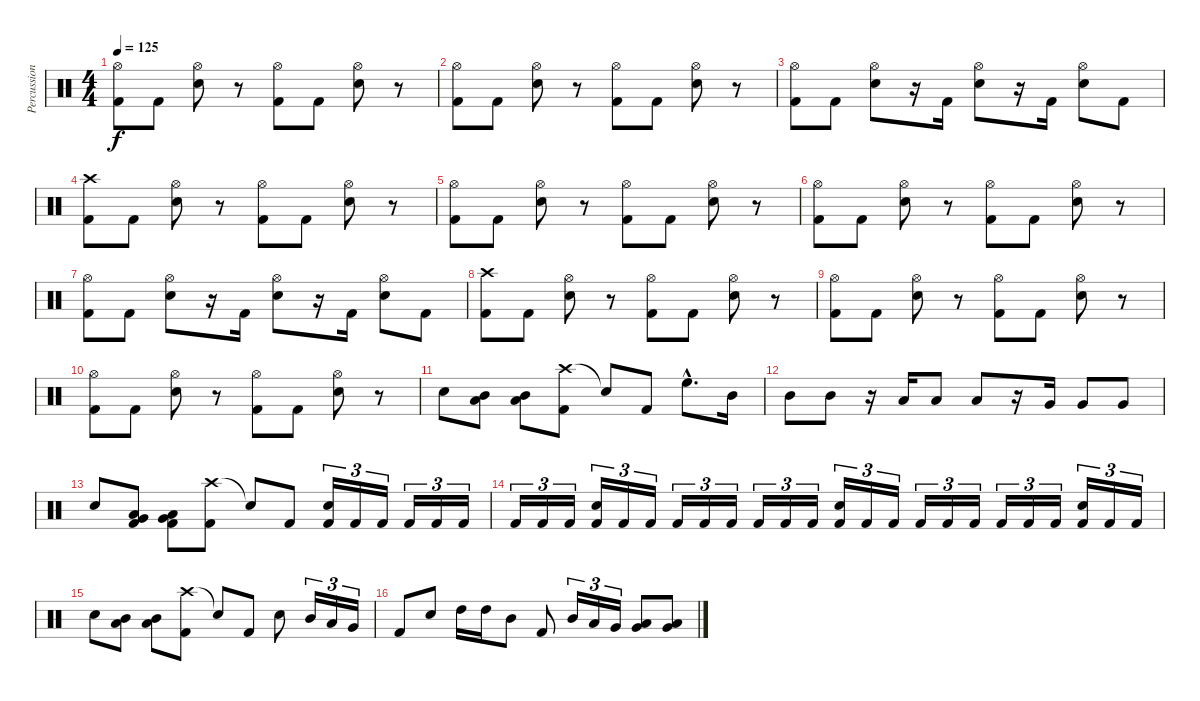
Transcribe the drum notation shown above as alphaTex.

\track ("Percussion" "Percussion") {instrument percussion}
\staff {score}
\articulation defaults
\ts (4 4)
\tempo 125
\clef neutral
\ks c
("Hi-Hat (open)" "Kick (hit) 2").8{dy f} "Kick (hit) 2".8 ("Hi-Hat (open)" "Snare (hit) 2").8 r.8 ("Hi-Hat (open)" "Kick (hit) 2").8 "Kick (hit) 2".8 ("Hi-Hat (open)" "Snare (hit) 2").8 r.8 |
("Hi-Hat (open)" "Kick (hit) 2").8 "Kick (hit) 2".8 ("Hi-Hat (open)" "Snare (hit) 2").8 r.8 ("Hi-Hat (open)" "Kick (hit) 2").8 "Kick (hit) 2".8 ("Hi-Hat (open)" "Snare (hit) 2").8 r.8 |
("Hi-Hat (open)" "Kick (hit) 2").8 "Kick (hit) 2".8 ("Hi-Hat (open)" "Snare (hit) 2").8 r.16 "Kick (hit) 2".16 ("Hi-Hat (open)" "Snare (hit) 2").8 r.16 "Kick (hit) 2".16 ("Hi-Hat (open)" "Snare (hit) 2").8 "Kick (hit) 2".8 |
("Crash high (hit)" "Kick (hit) 2").8 "Kick (hit) 2".8 ("Hi-Hat (open)" "Snare (hit) 2").8 r.8 ("Hi-Hat (open)" "Kick (hit) 2").8 "Kick (hit) 2".8 ("Hi-Hat (open)" "Snare (hit) 2").8 r.8 |
("Hi-Hat (open)" "Kick (hit) 2").8 "Kick (hit) 2".8 ("Hi-Hat (open)" "Snare (hit) 2").8 r.8 ("Hi-Hat (open)" "Kick (hit) 2").8 "Kick (hit) 2".8 ("Hi-Hat (open)" "Snare (hit) 2").8 r.8 |
("Hi-Hat (open)" "Kick (hit) 2").8 "Kick (hit) 2".8 ("Hi-Hat (open)" "Snare (hit) 2").8 r.8 ("Hi-Hat (open)" "Kick (hit) 2").8 "Kick (hit) 2".8 ("Hi-Hat (open)" "Snare (hit) 2").8 r.8 |
("Hi-Hat (open)" "Kick (hit) 2").8 "Kick (hit) 2".8 ("Hi-Hat (open)" "Snare (hit) 2").8 r.16 "Kick (hit) 2".16 ("Hi-Hat (open)" "Snare (hit) 2").8 r.16 "Kick (hit) 2".16 ("Hi-Hat (open)" "Snare (hit) 2").8 "Kick (hit) 2".8 |
("Crash high (hit)" "Kick (hit) 2").8 "Kick (hit) 2".8 ("Hi-Hat (open)" "Snare (hit) 2").8 r.8 ("Hi-Hat (open)" "Kick (hit) 2").8 "Kick (hit) 2".8 ("Hi-Hat (open)" "Snare (hit) 2").8 r.8 |
("Hi-Hat (open)" "Kick (hit) 2").8 "Kick (hit) 2".8 ("Hi-Hat (open)" "Snare (hit) 2").8 r.8 ("Hi-Hat (open)" "Kick (hit) 2").8 "Kick (hit) 2".8 ("Hi-Hat (open)" "Snare (hit) 2").8 r.8 |
("Hi-Hat (open)" "Kick (hit) 2").8 "Kick (hit) 2".8 ("Hi-Hat (open)" "Snare (hit) 2").8 r.8 ("Hi-Hat (open)" "Kick (hit) 2").8 "Kick (hit) 2".8 ("Hi-Hat (open)" "Snare (hit) 2").8 r.8 |
"Snare (hit) 2".8 ("Mid Tom (hit)" "Low Tom (hit)").8 ("Mid Tom (hit)" "Low Tom (hit)").8 ("Crash high (hit)" "Kick (hit) 2").8 "Snare (hit)"{t}.8 "Kick (hit) 2".8 "High Floor Tom (hit)"{hac}.8{d} "Mid Tom (hit)".16 |
"Mid Tom (hit)".8 "Mid Tom (hit)".8 r.16 "Low Tom (hit)".16 "Low Tom (hit)".8 "Low Tom (hit)".8 r.16 "Very Low Tom (hit)".16 "Very Low Tom (hit)".8 "Very Low Tom (hit)".8 |
"Snare (hit) 2".8 ("Low Tom (hit)" "Very Low Tom (hit)" "Kick (hit) 2").8 ("Low Tom (hit)" "Very Low Tom (hit)" "Kick (hit) 2").8 ("Crash high (hit)" "Kick (hit) 2").8 "Snare (hit)"{t}.8 "Kick (hit) 2".8 ("Snare (hit) 2" "Kick (hit) 2").16{tu (3 2)} "Kick (hit) 2".16{tu (3 2)} "Kick (hit) 2".16{tu (3 2)} "Kick (hit) 2".16{tu (3 2)} "Kick (hit) 2".16{tu (3 2)} "Kick (hit) 2".16{tu (3 2)} |
"Kick (hit) 2".16{tu (3 2)} "Kick (hit) 2".16{tu (3 2)} "Kick (hit) 2".16{tu (3 2)} ("Snare (hit) 2" "Kick (hit) 2").16{tu (3 2)} "Kick (hit) 2".16{tu (3 2)} "Kick (hit) 2".16{tu (3 2)} "Kick (hit) 2".16{tu (3 2)} "Kick (hit) 2".16{tu (3 2)} "Kick (hit) 2".16{tu (3 2)} "Kick (hit) 2".16{tu (3 2)} "Kick (hit) 2".16{tu (3 2)} "Kick (hit) 2".16{tu (3 2)} ("Snare (hit) 2" "Kick (hit) 2").16{tu (3 2)} "Kick (hit) 2".16{tu (3 2)} "Kick (hit) 2".16{tu (3 2)} "Kick (hit) 2".16{tu (3 2)} "Kick (hit) 2".16{tu (3 2)} "Kick (hit) 2".16{tu (3 2)} "Kick (hit) 2".16{tu (3 2)} "Kick (hit) 2".16{tu (3 2)} "Kick (hit) 2".16{tu (3 2)} ("Snare (hit) 2" "Kick (hit) 2").16{tu (3 2)} "Kick (hit) 2".16{tu (3 2)} "Kick (hit) 2".16{tu (3 2)} |
"Snare (hit) 2".8 ("Mid Tom (hit)" "Low Tom (hit)").8 ("Mid Tom (hit)" "Low Tom (hit)").8 ("Crash high (hit)" "Kick (hit) 2").8 "Snare (hit)"{t}.8 "Kick (hit) 2".8 "Snare (hit) 2".8 "Mid Tom (hit)".16{tu (3 2)} "Low Tom (hit)".16{tu (3 2)} "Very Low Tom (hit)".16{tu (3 2)} |
"Kick (hit) 2".8 "Snare (hit) 2".8 "High Tom (hit)".16 "High Tom (hit)".16 "Mid Tom (hit)".8 "Kick (hit) 2".8 "Mid Tom (hit)".16{tu (3 2)} "Low Tom (hit)".16{tu (3 2)} "Very Low Tom (hit)".16{tu (3 2)} ("Low Tom (hit)" "Very Low Tom (hit)").8 ("Low Tom (hit)" "Very Low Tom (hit)").8
